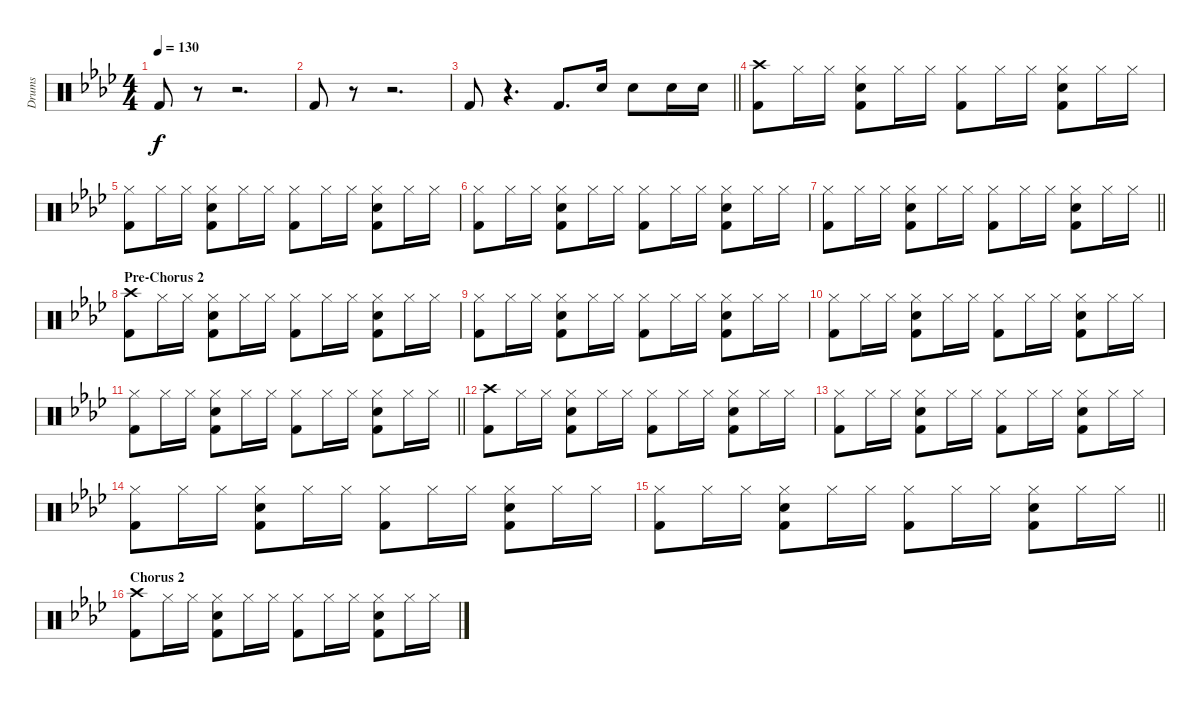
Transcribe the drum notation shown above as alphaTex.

\track ("Drums" "Drums") {instrument percussion}
\staff {score}
\articulation defaults
\ts (4 4)
\tempo 130
\clef neutral
\ks ab "Kick (hit) 2".8{dy f}
r.8 r.2{d} |
"Kick (hit) 2".8 r.8 r.2{d} |
\barLineRight lightlight "Kick (hit) 2".8
r.4{d} "Kick (hit) 2".8{d} "Snare (hit) 2".16 "Snare (hit) 2".8 "Snare (hit) 2".16 "Snare (hit) 2".16 |
("Crash high (hit)" "Kick (hit) 2").8 "Hi-Hat (closed)".16 "Hi-Hat (closed)".16 ("Hi-Hat (closed)" "Snare (hit) 2" "Kick (hit) 2").8 "Hi-Hat (closed)".16 "Hi-Hat (closed)".16 ("Hi-Hat (closed)" "Kick (hit) 2").8 "Hi-Hat (closed)".16 "Hi-Hat (closed)".16 ("Hi-Hat (closed)" "Snare (hit) 2" "Kick (hit) 2").8 "Hi-Hat (closed)".16 "Hi-Hat (closed)".16 |
("Hi-Hat (closed)" "Kick (hit) 2").8 "Hi-Hat (closed)".16 "Hi-Hat (closed)".16 ("Hi-Hat (closed)" "Snare (hit) 2" "Kick (hit) 2").8 "Hi-Hat (closed)".16 "Hi-Hat (closed)".16 ("Hi-Hat (closed)" "Kick (hit) 2").8 "Hi-Hat (closed)".16 "Hi-Hat (closed)".16 ("Hi-Hat (closed)" "Snare (hit) 2" "Kick (hit) 2").8 "Hi-Hat (closed)".16 "Hi-Hat (closed)".16 |
("Hi-Hat (closed)" "Kick (hit) 2").8 "Hi-Hat (closed)".16 "Hi-Hat (closed)".16 ("Hi-Hat (closed)" "Snare (hit) 2" "Kick (hit) 2").8 "Hi-Hat (closed)".16 "Hi-Hat (closed)".16 ("Hi-Hat (closed)" "Kick (hit) 2").8 "Hi-Hat (closed)".16 "Hi-Hat (closed)".16 ("Hi-Hat (closed)" "Snare (hit) 2" "Kick (hit) 2").8 "Hi-Hat (closed)".16 "Hi-Hat (closed)".16 |
\barLineRight lightlight
("Hi-Hat (closed)" "Kick (hit) 2").8 "Hi-Hat (closed)".16 "Hi-Hat (closed)".16 ("Hi-Hat (closed)" "Snare (hit) 2" "Kick (hit) 2").8 "Hi-Hat (closed)".16 "Hi-Hat (closed)".16 ("Hi-Hat (closed)" "Kick (hit) 2").8 "Hi-Hat (closed)".16 "Hi-Hat (closed)".16 ("Hi-Hat (closed)" "Snare (hit) 2" "Kick (hit) 2").8 "Hi-Hat (closed)".16 "Hi-Hat (closed)".16 |
\section ("" "Pre-Chorus 2")
("Crash high (hit)" "Kick (hit) 2").8 "Hi-Hat (closed)".16 "Hi-Hat (closed)".16 ("Hi-Hat (closed)" "Snare (hit) 2" "Kick (hit) 2").8 "Hi-Hat (closed)".16 "Hi-Hat (closed)".16 ("Hi-Hat (closed)" "Kick (hit) 2").8 "Hi-Hat (closed)".16 "Hi-Hat (closed)".16 ("Hi-Hat (closed)" "Snare (hit) 2" "Kick (hit) 2").8 "Hi-Hat (closed)".16 "Hi-Hat (closed)".16 |
("Hi-Hat (closed)" "Kick (hit) 2").8 "Hi-Hat (closed)".16 "Hi-Hat (closed)".16 ("Hi-Hat (closed)" "Snare (hit) 2" "Kick (hit) 2").8 "Hi-Hat (closed)".16 "Hi-Hat (closed)".16 ("Hi-Hat (closed)" "Kick (hit) 2").8 "Hi-Hat (closed)".16 "Hi-Hat (closed)".16 ("Hi-Hat (closed)" "Snare (hit) 2" "Kick (hit) 2").8 "Hi-Hat (closed)".16 "Hi-Hat (closed)".16 |
("Hi-Hat (closed)" "Kick (hit) 2").8 "Hi-Hat (closed)".16 "Hi-Hat (closed)".16 ("Hi-Hat (closed)" "Snare (hit) 2" "Kick (hit) 2").8 "Hi-Hat (closed)".16 "Hi-Hat (closed)".16 ("Hi-Hat (closed)" "Kick (hit) 2").8 "Hi-Hat (closed)".16 "Hi-Hat (closed)".16 ("Hi-Hat (closed)" "Snare (hit) 2" "Kick (hit) 2").8 "Hi-Hat (closed)".16 "Hi-Hat (closed)".16 |
\barLineRight lightlight
("Hi-Hat (closed)" "Kick (hit) 2").8 "Hi-Hat (closed)".16 "Hi-Hat (closed)".16 ("Hi-Hat (closed)" "Snare (hit) 2" "Kick (hit) 2").8 "Hi-Hat (closed)".16 "Hi-Hat (closed)".16 ("Hi-Hat (closed)" "Kick (hit) 2").8 "Hi-Hat (closed)".16 "Hi-Hat (closed)".16 ("Hi-Hat (closed)" "Snare (hit) 2" "Kick (hit) 2").8 "Hi-Hat (closed)".16 "Hi-Hat (closed)".16 |
("Crash high (hit)" "Kick (hit) 2").8 "Hi-Hat (closed)".16 "Hi-Hat (closed)".16 ("Hi-Hat (closed)" "Snare (hit) 2" "Kick (hit) 2").8 "Hi-Hat (closed)".16 "Hi-Hat (closed)".16 ("Hi-Hat (closed)" "Kick (hit) 2").8 "Hi-Hat (closed)".16 "Hi-Hat (closed)".16 ("Hi-Hat (closed)" "Snare (hit) 2" "Kick (hit) 2").8 "Hi-Hat (closed)".16 "Hi-Hat (closed)".16 |
("Hi-Hat (closed)" "Kick (hit) 2").8 "Hi-Hat (closed)".16 "Hi-Hat (closed)".16 ("Hi-Hat (closed)" "Snare (hit) 2" "Kick (hit) 2").8 "Hi-Hat (closed)".16 "Hi-Hat (closed)".16 ("Hi-Hat (closed)" "Kick (hit) 2").8 "Hi-Hat (closed)".16 "Hi-Hat (closed)".16 ("Hi-Hat (closed)" "Snare (hit) 2" "Kick (hit) 2").8 "Hi-Hat (closed)".16 "Hi-Hat (closed)".16 |
("Hi-Hat (closed)" "Kick (hit) 2").8 "Hi-Hat (closed)".16 "Hi-Hat (closed)".16 ("Hi-Hat (closed)" "Snare (hit) 2" "Kick (hit) 2").8 "Hi-Hat (closed)".16 "Hi-Hat (closed)".16 ("Hi-Hat (closed)" "Kick (hit) 2").8 "Hi-Hat (closed)".16 "Hi-Hat (closed)".16 ("Hi-Hat (closed)" "Snare (hit) 2" "Kick (hit) 2").8 "Hi-Hat (closed)".16 "Hi-Hat (closed)".16 |
\barLineRight lightlight
("Hi-Hat (closed)" "Kick (hit) 2").8 "Hi-Hat (closed)".16 "Hi-Hat (closed)".16 ("Hi-Hat (closed)" "Snare (hit) 2" "Kick (hit) 2").8 "Hi-Hat (closed)".16 "Hi-Hat (closed)".16 ("Hi-Hat (closed)" "Kick (hit) 2").8 "Hi-Hat (closed)".16 "Hi-Hat (closed)".16 ("Hi-Hat (closed)" "Snare (hit) 2" "Kick (hit) 2").8 "Hi-Hat (closed)".16 "Hi-Hat (closed)".16 |
\section ("" "Chorus 2")
("Crash high (hit)" "Kick (hit) 2").8 "Hi-Hat (closed)".16 "Hi-Hat (closed)".16 ("Hi-Hat (closed)" "Snare (hit) 2" "Kick (hit) 2").8 "Hi-Hat (closed)".16 "Hi-Hat (closed)".16 ("Hi-Hat (closed)" "Kick (hit) 2").8 "Hi-Hat (closed)".16 "Hi-Hat (closed)".16 ("Hi-Hat (closed)" "Snare (hit) 2" "Kick (hit) 2").8 "Hi-Hat (closed)".16 "Hi-Hat (closed)".16
